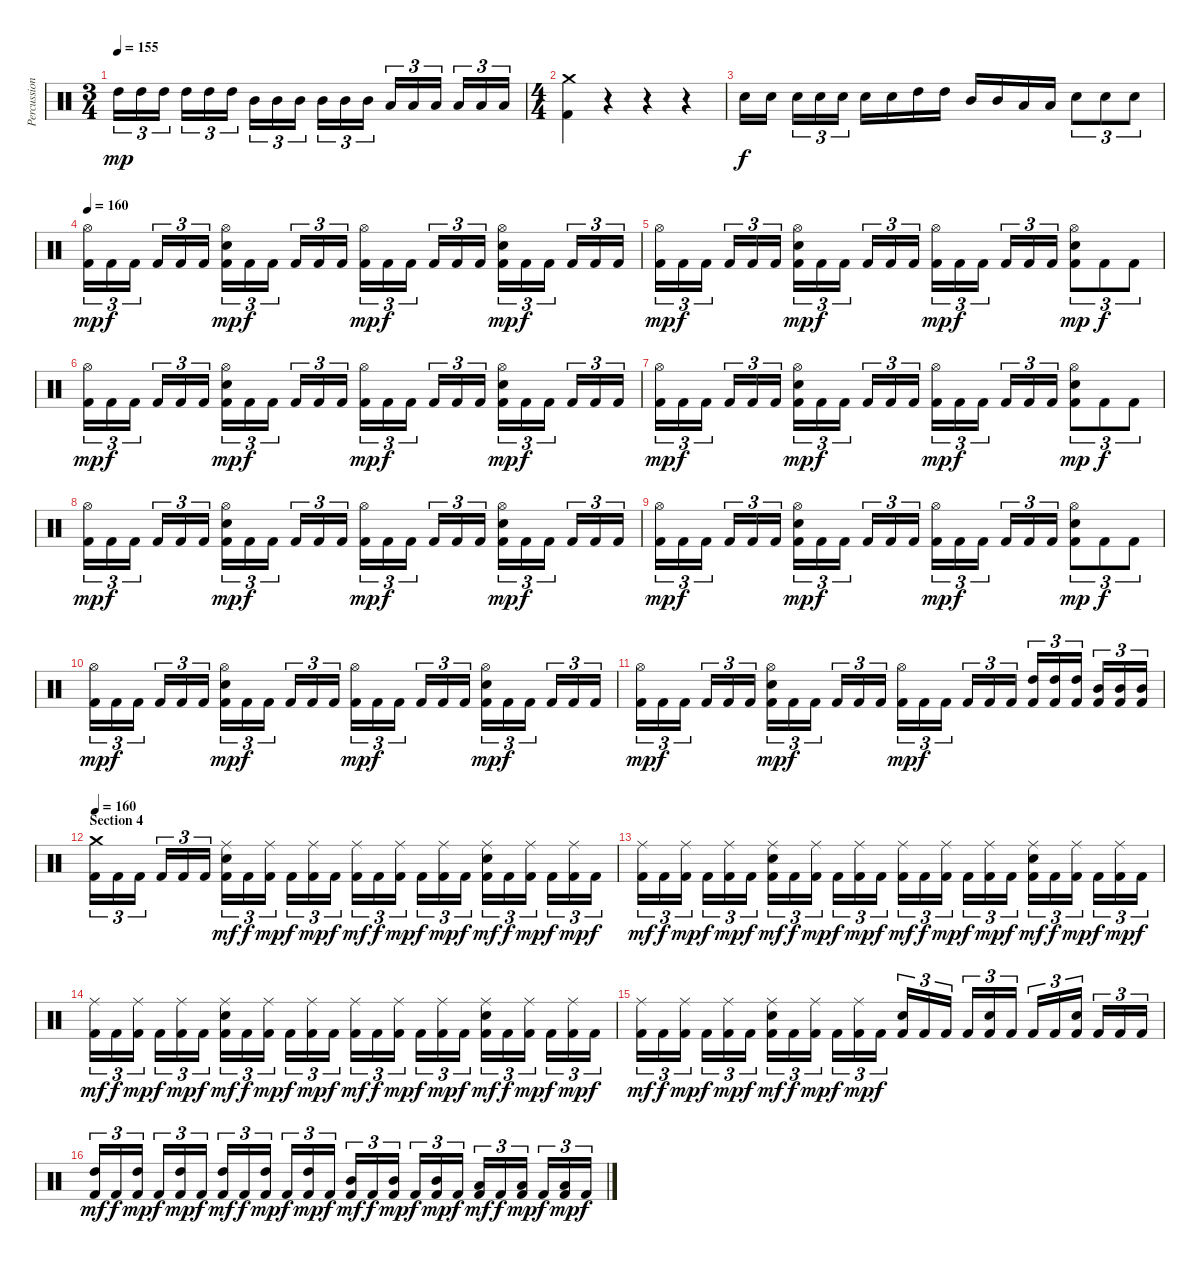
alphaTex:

\track ("Percussion" "Percussion") {instrument percussion}
\staff {score}
\articulation defaults
\ts (3 4)
\tempo 155
\clef neutral
\ks c "High Tom (hit)".16{tu (3 2) dy mp} "High Tom (hit)".16{tu (3 2)} "High Tom (hit)".16{tu (3 2)} "High Tom (hit)".16{tu (3 2)} "High Tom (hit)".16{tu (3 2)} "High Tom (hit)".16{tu (3 2)} "Mid Tom (hit)".16{tu (3 2)} "Mid Tom (hit)".16{tu (3 2)} "Mid Tom (hit)".16{tu (3 2)} "Mid Tom (hit)".16{tu (3 2)} "Mid Tom (hit)".16{tu (3 2)} "Mid Tom (hit)".16{tu (3 2)} "Low Tom (hit)".16{tu (3 2)} "Low Tom (hit)".16{tu (3 2)} "Low Tom (hit)".16{tu (3 2)} "Low Tom (hit)".16{tu (3 2)} "Low Tom (hit)".16{tu (3 2)} "Low Tom (hit)".16{tu (3 2)}
|
\ts (4 4)
("Crash medium (hit)" "Kick (hit) 2").4 r.4 r.4 r.4 |
"Electric Snare (hit)".16{dy f} "Electric Snare (hit)".16 "Electric Snare (hit)".16{tu (3 2)} "Electric Snare (hit)".16{tu (3 2)} "Electric Snare (hit)".16{tu (3 2)} "Electric Snare (hit)".16 "Electric Snare (hit)".16 "High Tom (hit)".16 "High Tom (hit)".16 "Mid Tom (hit)".16 "Mid Tom (hit)".16 "Low Tom (hit)".16 "Low Tom (hit)".16 "Electric Snare (hit)".8{tu (3 2)} "Electric Snare (hit)".8{tu (3 2)} "Electric Snare (hit)".8{tu (3 2)} |
\tempo 160
("Hi-Hat (open)" "Kick (hit) 2").16{tu (3 2) dy mp} "Kick (hit) 2".16{tu (3 2) dy f} "Kick (hit) 2".16{tu (3 2)} "Kick (hit) 2".16{tu (3 2)} "Kick (hit) 2".16{tu (3 2)} "Kick (hit) 2".16{tu (3 2)} ("Hi-Hat (open)" "Electric Snare (hit)" "Kick (hit) 2").16{tu (3 2) dy mp} "Kick (hit) 2".16{tu (3 2) dy f} "Kick (hit) 2".16{tu (3 2)} "Kick (hit) 2".16{tu (3 2)} "Kick (hit) 2".16{tu (3 2)} "Kick (hit) 2".16{tu (3 2)} ("Hi-Hat (open)" "Kick (hit) 2").16{tu (3 2) dy mp} "Kick (hit) 2".16{tu (3 2) dy f} "Kick (hit) 2".16{tu (3 2)} "Kick (hit) 2".16{tu (3 2)} "Kick (hit) 2".16{tu (3 2)} "Kick (hit) 2".16{tu (3 2)} ("Hi-Hat (open)" "Electric Snare (hit)" "Kick (hit) 2").16{tu (3 2) dy mp} "Kick (hit) 2".16{tu (3 2) dy f} "Kick (hit) 2".16{tu (3 2)} "Kick (hit) 2".16{tu (3 2)} "Kick (hit) 2".16{tu (3 2)} "Kick (hit) 2".16{tu (3 2)} |
("Hi-Hat (open)" "Kick (hit) 2").16{tu (3 2) dy mp} "Kick (hit) 2".16{tu (3 2) dy f} "Kick (hit) 2".16{tu (3 2)} "Kick (hit) 2".16{tu (3 2)} "Kick (hit) 2".16{tu (3 2)} "Kick (hit) 2".16{tu (3 2)} ("Hi-Hat (open)" "Electric Snare (hit)" "Kick (hit) 2").16{tu (3 2) dy mp} "Kick (hit) 2".16{tu (3 2) dy f} "Kick (hit) 2".16{tu (3 2)} "Kick (hit) 2".16{tu (3 2)} "Kick (hit) 2".16{tu (3 2)} "Kick (hit) 2".16{tu (3 2)} ("Hi-Hat (open)" "Kick (hit) 2").16{tu (3 2) dy mp} "Kick (hit) 2".16{tu (3 2) dy f} "Kick (hit) 2".16{tu (3 2)} "Kick (hit) 2".16{tu (3 2)} "Kick (hit) 2".16{tu (3 2)} "Kick (hit) 2".16{tu (3 2)} ("Hi-Hat (open)" "Electric Snare (hit)" "Kick (hit) 2").8{tu (3 2) dy mp} "Kick (hit) 2".8{tu (3 2) dy f} "Kick (hit) 2".8{tu (3 2)} |
("Hi-Hat (open)" "Kick (hit) 2").16{tu (3 2) dy mp} "Kick (hit) 2".16{tu (3 2) dy f} "Kick (hit) 2".16{tu (3 2)} "Kick (hit) 2".16{tu (3 2)} "Kick (hit) 2".16{tu (3 2)} "Kick (hit) 2".16{tu (3 2)} ("Hi-Hat (open)" "Electric Snare (hit)" "Kick (hit) 2").16{tu (3 2) dy mp} "Kick (hit) 2".16{tu (3 2) dy f} "Kick (hit) 2".16{tu (3 2)} "Kick (hit) 2".16{tu (3 2)} "Kick (hit) 2".16{tu (3 2)} "Kick (hit) 2".16{tu (3 2)} ("Hi-Hat (open)" "Kick (hit) 2").16{tu (3 2) dy mp} "Kick (hit) 2".16{tu (3 2) dy f} "Kick (hit) 2".16{tu (3 2)} "Kick (hit) 2".16{tu (3 2)} "Kick (hit) 2".16{tu (3 2)} "Kick (hit) 2".16{tu (3 2)} ("Hi-Hat (open)" "Electric Snare (hit)" "Kick (hit) 2").16{tu (3 2) dy mp} "Kick (hit) 2".16{tu (3 2) dy f} "Kick (hit) 2".16{tu (3 2)} "Kick (hit) 2".16{tu (3 2)} "Kick (hit) 2".16{tu (3 2)} "Kick (hit) 2".16{tu (3 2)} |
("Hi-Hat (open)" "Kick (hit) 2").16{tu (3 2) dy mp} "Kick (hit) 2".16{tu (3 2) dy f} "Kick (hit) 2".16{tu (3 2)} "Kick (hit) 2".16{tu (3 2)} "Kick (hit) 2".16{tu (3 2)} "Kick (hit) 2".16{tu (3 2)} ("Hi-Hat (open)" "Electric Snare (hit)" "Kick (hit) 2").16{tu (3 2) dy mp} "Kick (hit) 2".16{tu (3 2) dy f} "Kick (hit) 2".16{tu (3 2)} "Kick (hit) 2".16{tu (3 2)} "Kick (hit) 2".16{tu (3 2)} "Kick (hit) 2".16{tu (3 2)} ("Hi-Hat (open)" "Kick (hit) 2").16{tu (3 2) dy mp} "Kick (hit) 2".16{tu (3 2) dy f} "Kick (hit) 2".16{tu (3 2)} "Kick (hit) 2".16{tu (3 2)} "Kick (hit) 2".16{tu (3 2)} "Kick (hit) 2".16{tu (3 2)} ("Hi-Hat (open)" "Electric Snare (hit)" "Kick (hit) 2").8{tu (3 2) dy mp} "Kick (hit) 2".8{tu (3 2) dy f} "Kick (hit) 2".8{tu (3 2)} |
("Hi-Hat (open)" "Kick (hit) 2").16{tu (3 2) dy mp} "Kick (hit) 2".16{tu (3 2) dy f} "Kick (hit) 2".16{tu (3 2)} "Kick (hit) 2".16{tu (3 2)} "Kick (hit) 2".16{tu (3 2)} "Kick (hit) 2".16{tu (3 2)} ("Hi-Hat (open)" "Electric Snare (hit)" "Kick (hit) 2").16{tu (3 2) dy mp} "Kick (hit) 2".16{tu (3 2) dy f} "Kick (hit) 2".16{tu (3 2)} "Kick (hit) 2".16{tu (3 2)} "Kick (hit) 2".16{tu (3 2)} "Kick (hit) 2".16{tu (3 2)} ("Hi-Hat (open)" "Kick (hit) 2").16{tu (3 2) dy mp} "Kick (hit) 2".16{tu (3 2) dy f} "Kick (hit) 2".16{tu (3 2)} "Kick (hit) 2".16{tu (3 2)} "Kick (hit) 2".16{tu (3 2)} "Kick (hit) 2".16{tu (3 2)} ("Hi-Hat (open)" "Electric Snare (hit)" "Kick (hit) 2").16{tu (3 2) dy mp} "Kick (hit) 2".16{tu (3 2) dy f} "Kick (hit) 2".16{tu (3 2)} "Kick (hit) 2".16{tu (3 2)} "Kick (hit) 2".16{tu (3 2)} "Kick (hit) 2".16{tu (3 2)} |
("Hi-Hat (open)" "Kick (hit) 2").16{tu (3 2) dy mp} "Kick (hit) 2".16{tu (3 2) dy f} "Kick (hit) 2".16{tu (3 2)} "Kick (hit) 2".16{tu (3 2)} "Kick (hit) 2".16{tu (3 2)} "Kick (hit) 2".16{tu (3 2)} ("Hi-Hat (open)" "Electric Snare (hit)" "Kick (hit) 2").16{tu (3 2) dy mp} "Kick (hit) 2".16{tu (3 2) dy f} "Kick (hit) 2".16{tu (3 2)} "Kick (hit) 2".16{tu (3 2)} "Kick (hit) 2".16{tu (3 2)} "Kick (hit) 2".16{tu (3 2)} ("Hi-Hat (open)" "Kick (hit) 2").16{tu (3 2) dy mp} "Kick (hit) 2".16{tu (3 2) dy f} "Kick (hit) 2".16{tu (3 2)} "Kick (hit) 2".16{tu (3 2)} "Kick (hit) 2".16{tu (3 2)} "Kick (hit) 2".16{tu (3 2)} ("Hi-Hat (open)" "Electric Snare (hit)" "Kick (hit) 2").8{tu (3 2) dy mp} "Kick (hit) 2".8{tu (3 2) dy f} "Kick (hit) 2".8{tu (3 2)} |
("Hi-Hat (open)" "Kick (hit) 2").16{tu (3 2) dy mp} "Kick (hit) 2".16{tu (3 2) dy f} "Kick (hit) 2".16{tu (3 2)} "Kick (hit) 2".16{tu (3 2)} "Kick (hit) 2".16{tu (3 2)} "Kick (hit) 2".16{tu (3 2)} ("Hi-Hat (open)" "Electric Snare (hit)" "Kick (hit) 2").16{tu (3 2) dy mp} "Kick (hit) 2".16{tu (3 2) dy f} "Kick (hit) 2".16{tu (3 2)} "Kick (hit) 2".16{tu (3 2)} "Kick (hit) 2".16{tu (3 2)} "Kick (hit) 2".16{tu (3 2)} ("Hi-Hat (open)" "Kick (hit) 2").16{tu (3 2) dy mp} "Kick (hit) 2".16{tu (3 2) dy f} "Kick (hit) 2".16{tu (3 2)} "Kick (hit) 2".16{tu (3 2)} "Kick (hit) 2".16{tu (3 2)} "Kick (hit) 2".16{tu (3 2)} ("Hi-Hat (open)" "Electric Snare (hit)" "Kick (hit) 2").16{tu (3 2) dy mp} "Kick (hit) 2".16{tu (3 2) dy f} "Kick (hit) 2".16{tu (3 2)} "Kick (hit) 2".16{tu (3 2)} "Kick (hit) 2".16{tu (3 2)} "Kick (hit) 2".16{tu (3 2)} |
("Hi-Hat (open)" "Kick (hit) 2").16{tu (3 2) dy mp} "Kick (hit) 2".16{tu (3 2) dy f} "Kick (hit) 2".16{tu (3 2)} "Kick (hit) 2".16{tu (3 2)} "Kick (hit) 2".16{tu (3 2)} "Kick (hit) 2".16{tu (3 2)} ("Hi-Hat (open)" "Electric Snare (hit)" "Kick (hit) 2").16{tu (3 2) dy mp} "Kick (hit) 2".16{tu (3 2) dy f} "Kick (hit) 2".16{tu (3 2)} "Kick (hit) 2".16{tu (3 2)} "Kick (hit) 2".16{tu (3 2)} "Kick (hit) 2".16{tu (3 2)} ("Hi-Hat (open)" "Kick (hit) 2").16{tu (3 2) dy mp} "Kick (hit) 2".16{tu (3 2) dy f} "Kick (hit) 2".16{tu (3 2)} "Kick (hit) 2".16{tu (3 2)} "Kick (hit) 2".16{tu (3 2)} "Kick (hit) 2".16{tu (3 2)} ("High Tom (hit)" "Kick (hit) 2").16{tu (3 2)} ("High Tom (hit)" "Kick (hit) 2").16{tu (3 2)} ("High Tom (hit)" "Kick (hit) 2").16{tu (3 2)} ("Mid Tom (hit)" "Kick (hit) 2").16{tu (3 2)} ("Mid Tom (hit)" "Kick (hit) 2").16{tu (3 2)} ("Mid Tom (hit)" "Kick (hit) 2").16{tu (3 2)} |
\section ("" "Section 4")
\tempo 160
("Crash medium (hit)" "Kick (hit) 2").16{tu (3 2)} "Kick (hit) 2".16{tu (3 2)} "Kick (hit) 2".16{tu (3 2)} "Kick (hit) 2".16{tu (3 2)} "Kick (hit) 2".16{tu (3 2)} "Kick (hit) 2".16{tu (3 2)} ("Ride (middle)" "Electric Snare (hit)" "Kick (hit) 2").16{tu (3 2) dy mf} "Kick (hit) 2".16{tu (3 2) dy f} ("Ride (middle)" "Kick (hit) 2").16{tu (3 2) dy mp} "Kick (hit) 2".16{tu (3 2) dy f} ("Ride (middle)" "Kick (hit) 2").16{tu (3 2) dy mp} "Kick (hit) 2".16{tu (3 2) dy f} ("Ride (middle)" "Kick (hit) 2").16{tu (3 2) dy mf} "Kick (hit) 2".16{tu (3 2) dy f} ("Ride (middle)" "Kick (hit) 2").16{tu (3 2) dy mp} "Kick (hit) 2".16{tu (3 2) dy f} ("Ride (middle)" "Kick (hit) 2").16{tu (3 2) dy mp} "Kick (hit) 2".16{tu (3 2) dy f} ("Ride (middle)" "Electric Snare (hit)" "Kick (hit) 2").16{tu (3 2) dy mf} "Kick (hit) 2".16{tu (3 2) dy f} ("Ride (middle)" "Kick (hit) 2").16{tu (3 2) dy mp} "Kick (hit) 2".16{tu (3 2) dy f} ("Ride (middle)" "Kick (hit) 2").16{tu (3 2) dy mp} "Kick (hit) 2".16{tu (3 2) dy f} |
("Ride (middle)" "Kick (hit) 2").16{tu (3 2) dy mf} "Kick (hit) 2".16{tu (3 2) dy f} ("Ride (middle)" "Kick (hit) 2").16{tu (3 2) dy mp} "Kick (hit) 2".16{tu (3 2) dy f} ("Ride (middle)" "Kick (hit) 2").16{tu (3 2) dy mp} "Kick (hit) 2".16{tu (3 2) dy f} ("Ride (middle)" "Electric Snare (hit)" "Kick (hit) 2").16{tu (3 2) dy mf} "Kick (hit) 2".16{tu (3 2) dy f} ("Ride (middle)" "Kick (hit) 2").16{tu (3 2) dy mp} "Kick (hit) 2".16{tu (3 2) dy f} ("Ride (middle)" "Kick (hit) 2").16{tu (3 2) dy mp} "Kick (hit) 2".16{tu (3 2) dy f} ("Ride (middle)" "Kick (hit) 2").16{tu (3 2) dy mf} "Kick (hit) 2".16{tu (3 2) dy f} ("Ride (middle)" "Kick (hit) 2").16{tu (3 2) dy mp} "Kick (hit) 2".16{tu (3 2) dy f} ("Ride (middle)" "Kick (hit) 2").16{tu (3 2) dy mp} "Kick (hit) 2".16{tu (3 2) dy f} ("Ride (middle)" "Electric Snare (hit)" "Kick (hit) 2").16{tu (3 2) dy mf} "Kick (hit) 2".16{tu (3 2) dy f} ("Ride (middle)" "Kick (hit) 2").16{tu (3 2) dy mp} "Kick (hit) 2".16{tu (3 2) dy f} ("Ride (middle)" "Kick (hit) 2").16{tu (3 2) dy mp} "Kick (hit) 2".16{tu (3 2) dy f} |
("Ride (middle)" "Kick (hit) 2").16{tu (3 2) dy mf} "Kick (hit) 2".16{tu (3 2) dy f} ("Ride (middle)" "Kick (hit) 2").16{tu (3 2) dy mp} "Kick (hit) 2".16{tu (3 2) dy f} ("Ride (middle)" "Kick (hit) 2").16{tu (3 2) dy mp} "Kick (hit) 2".16{tu (3 2) dy f} ("Ride (middle)" "Electric Snare (hit)" "Kick (hit) 2").16{tu (3 2) dy mf} "Kick (hit) 2".16{tu (3 2) dy f} ("Ride (middle)" "Kick (hit) 2").16{tu (3 2) dy mp} "Kick (hit) 2".16{tu (3 2) dy f} ("Ride (middle)" "Kick (hit) 2").16{tu (3 2) dy mp} "Kick (hit) 2".16{tu (3 2) dy f} ("Ride (middle)" "Kick (hit) 2").16{tu (3 2) dy mf} "Kick (hit) 2".16{tu (3 2) dy f} ("Ride (middle)" "Kick (hit) 2").16{tu (3 2) dy mp} "Kick (hit) 2".16{tu (3 2) dy f} ("Ride (middle)" "Kick (hit) 2").16{tu (3 2) dy mp} "Kick (hit) 2".16{tu (3 2) dy f} ("Ride (middle)" "Electric Snare (hit)" "Kick (hit) 2").16{tu (3 2) dy mf} "Kick (hit) 2".16{tu (3 2) dy f} ("Ride (middle)" "Kick (hit) 2").16{tu (3 2) dy mp} "Kick (hit) 2".16{tu (3 2) dy f} ("Ride (middle)" "Kick (hit) 2").16{tu (3 2) dy mp} "Kick (hit) 2".16{tu (3 2) dy f} |
("Ride (middle)" "Kick (hit) 2").16{tu (3 2) dy mf} "Kick (hit) 2".16{tu (3 2) dy f} ("Ride (middle)" "Kick (hit) 2").16{tu (3 2) dy mp} "Kick (hit) 2".16{tu (3 2) dy f} ("Ride (middle)" "Kick (hit) 2").16{tu (3 2) dy mp} "Kick (hit) 2".16{tu (3 2) dy f} ("Ride (middle)" "Electric Snare (hit)" "Kick (hit) 2").16{tu (3 2) dy mf} "Kick (hit) 2".16{tu (3 2) dy f} ("Ride (middle)" "Kick (hit) 2").16{tu (3 2) dy mp} "Kick (hit) 2".16{tu (3 2) dy f} ("Ride (middle)" "Kick (hit) 2").16{tu (3 2) dy mp} "Kick (hit) 2".16{tu (3 2) dy f} ("Electric Snare (hit)" "Kick (hit) 2").16{tu (3 2)} "Kick (hit) 2".16{tu (3 2)} "Kick (hit) 2".16{tu (3 2)} "Kick (hit) 2".16{tu (3 2)} ("Electric Snare (hit)" "Kick (hit) 2").16{tu (3 2)} "Kick (hit) 2".16{tu (3 2)} "Kick (hit) 2".16{tu (3 2)} "Kick (hit) 2".16{tu (3 2)} ("Electric Snare (hit)" "Kick (hit) 2").16{tu (3 2)} "Kick (hit) 2".16{tu (3 2)} "Kick (hit) 2".16{tu (3 2)} "Kick (hit) 2".16{tu (3 2)} |
("High Tom (hit)" "Kick (hit) 2").16{tu (3 2) dy mf} "Kick (hit) 2".16{tu (3 2) dy f} ("High Tom (hit)" "Kick (hit) 2").16{tu (3 2) dy mp} "Kick (hit) 2".16{tu (3 2) dy f} ("High Tom (hit)" "Kick (hit) 2").16{tu (3 2) dy mp} "Kick (hit) 2".16{tu (3 2) dy f} ("High Tom (hit)" "Kick (hit) 2").16{tu (3 2) dy mf} "Kick (hit) 2".16{tu (3 2) dy f} ("High Tom (hit)" "Kick (hit) 2").16{tu (3 2) dy mp} "Kick (hit) 2".16{tu (3 2) dy f} ("High Tom (hit)" "Kick (hit) 2").16{tu (3 2) dy mp} "Kick (hit) 2".16{tu (3 2) dy f} ("Mid Tom (hit)" "Kick (hit) 2").16{tu (3 2) dy mf} "Kick (hit) 2".16{tu (3 2) dy f} ("Mid Tom (hit)" "Kick (hit) 2").16{tu (3 2) dy mp} "Kick (hit) 2".16{tu (3 2) dy f} ("Mid Tom (hit)" "Kick (hit) 2").16{tu (3 2) dy mp} "Kick (hit) 2".16{tu (3 2) dy f} ("Low Tom (hit)" "Kick (hit) 2").16{tu (3 2) dy mf} "Kick (hit) 2".16{tu (3 2) dy f} ("Low Tom (hit)" "Kick (hit) 2").16{tu (3 2) dy mp} "Kick (hit) 2".16{tu (3 2) dy f} ("Low Tom (hit)" "Kick (hit) 2").16{tu (3 2) dy mp} "Kick (hit) 2".16{tu (3 2) dy f}
